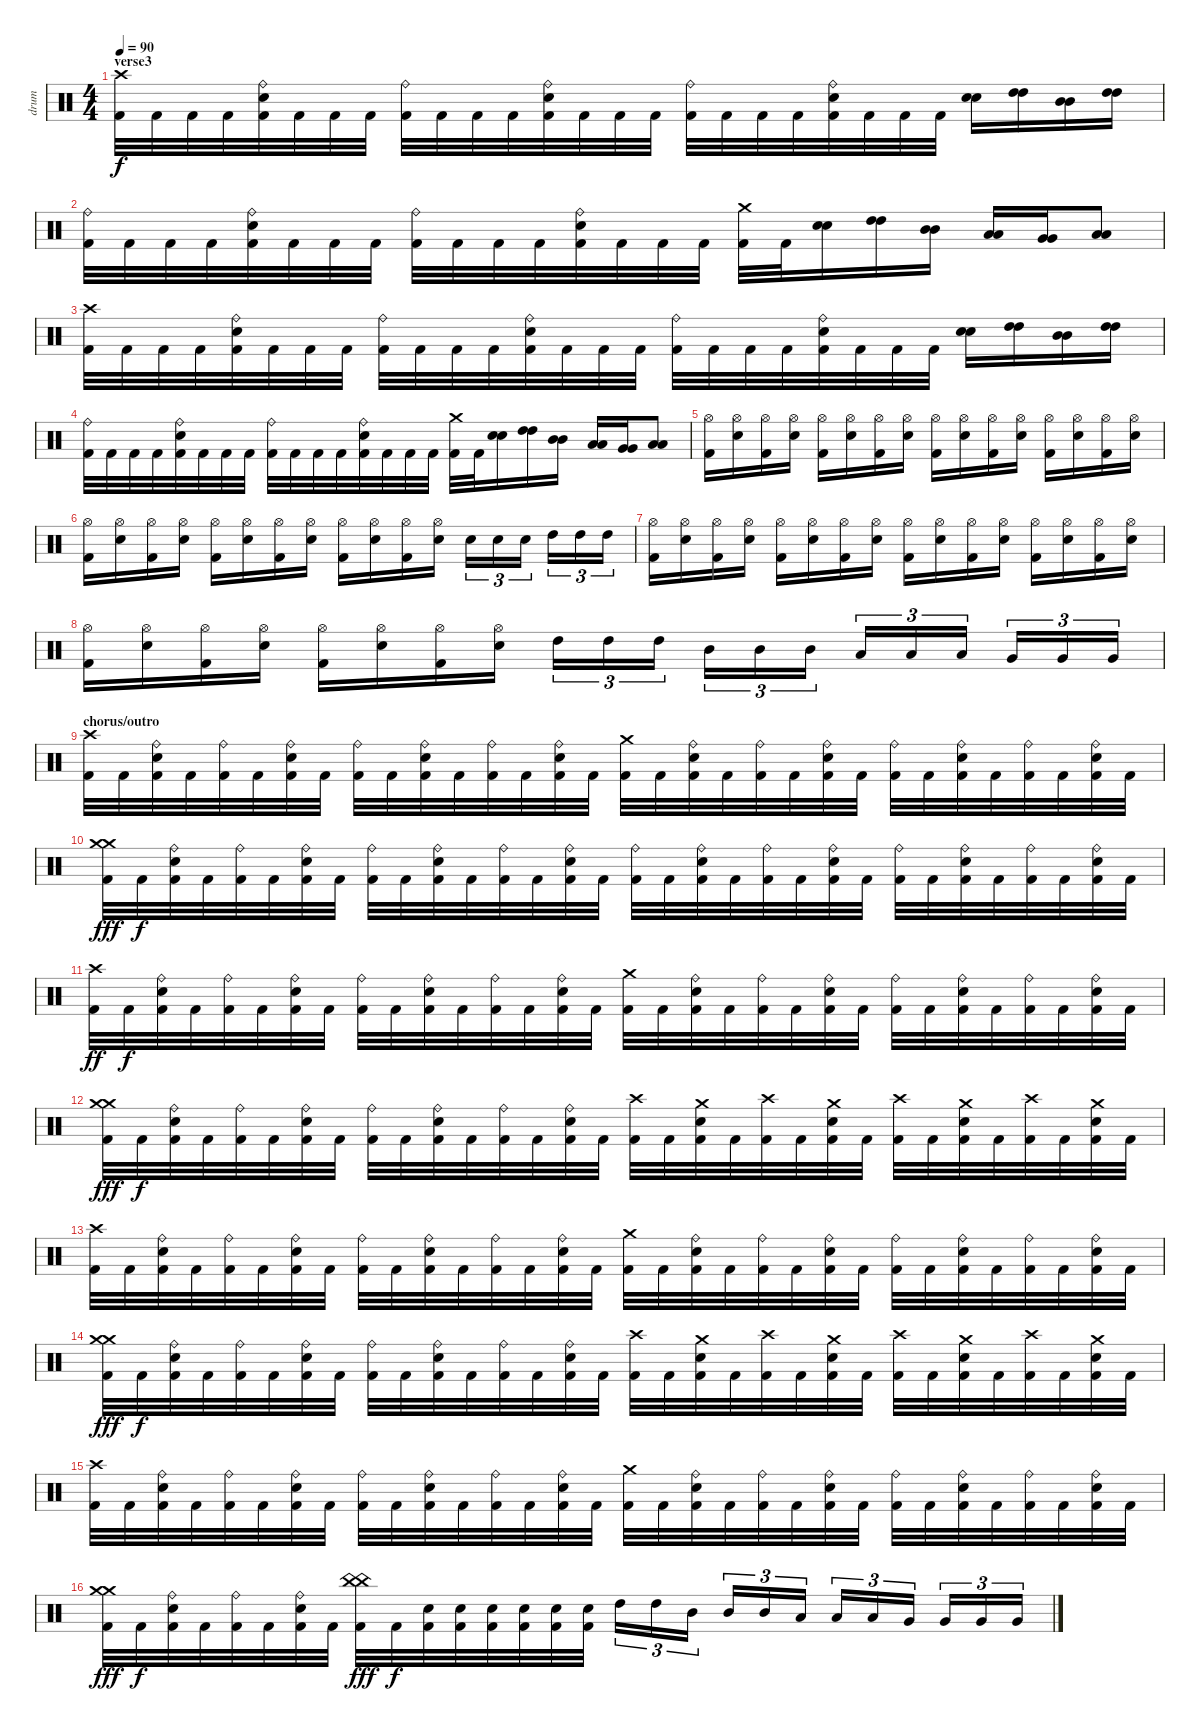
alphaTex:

\track ("drum" "drum") {instrument percussion}
\staff {score}
\articulation defaults
\ts (4 4)
\section ("" "verse3")
\tempo 90
\clef neutral
\ks c
("Crash high (hit)" "Kick (hit) 2").32{dy f} "Kick (hit) 2".32 "Kick (hit) 2".32 "Kick (hit) 2".32 ("Ride (bell)" "Electric Snare (hit)" "Kick (hit) 2").32 "Kick (hit) 2".32 "Kick (hit) 2".32 "Kick (hit) 2".32 ("Ride (bell)" "Kick (hit) 2").32 "Kick (hit) 2".32 "Kick (hit) 2".32 "Kick (hit) 2".32 ("Ride (bell)" "Electric Snare (hit)" "Kick (hit) 2").32 "Kick (hit) 2".32 "Kick (hit) 2".32 "Kick (hit) 2".32 ("Ride (bell)" "Kick (hit) 2").32 "Kick (hit) 2".32 "Kick (hit) 2".32 "Kick (hit) 2".32 ("Ride (bell)" "Electric Snare (hit)" "Kick (hit) 2").32 "Kick (hit) 2".32 "Kick (hit) 2".32 "Kick (hit) 2".32 ("Electric Snare (hit)" "Electric Snare (hit)").16 ("High Tom (hit)" "High Tom (hit)").16 ("Mid Tom (hit)" "Mid Tom (hit)").16 ("High Tom (hit)" "High Tom (hit)").16 |
("Ride (bell)" "Kick (hit) 2").32 "Kick (hit) 2".32 "Kick (hit) 2".32 "Kick (hit) 2".32 ("Ride (bell)" "Electric Snare (hit)" "Kick (hit) 2").32 "Kick (hit) 2".32 "Kick (hit) 2".32 "Kick (hit) 2".32 ("Ride (bell)" "Kick (hit) 2").32 "Kick (hit) 2".32 "Kick (hit) 2".32 "Kick (hit) 2".32 ("Ride (bell)" "Electric Snare (hit)" "Kick (hit) 2").32 "Kick (hit) 2".32 "Kick (hit) 2".32 "Kick (hit) 2".32 ("Crash medium (hit)" "Kick (hit) 2").32 "Kick (hit) 2".32 ("Electric Snare (hit)" "Electric Snare (hit)").16 ("High Tom (hit)" "High Tom (hit)").16 ("Mid Tom (hit)" "Mid Tom (hit)").16 ("Low Tom (hit)" "Low Tom (hit)").16 ("Very Low Tom (hit)" "Very Low Tom (hit)").16 ("Low Floor Tom (hit)" "Low Floor Tom (hit)").8 |
("Crash high (hit)" "Kick (hit) 2").32 "Kick (hit) 2".32 "Kick (hit) 2".32 "Kick (hit) 2".32 ("Ride (bell)" "Electric Snare (hit)" "Kick (hit) 2").32 "Kick (hit) 2".32 "Kick (hit) 2".32 "Kick (hit) 2".32 ("Ride (bell)" "Kick (hit) 2").32 "Kick (hit) 2".32 "Kick (hit) 2".32 "Kick (hit) 2".32 ("Ride (bell)" "Electric Snare (hit)" "Kick (hit) 2").32 "Kick (hit) 2".32 "Kick (hit) 2".32 "Kick (hit) 2".32 ("Ride (bell)" "Kick (hit) 2").32 "Kick (hit) 2".32 "Kick (hit) 2".32 "Kick (hit) 2".32 ("Ride (bell)" "Electric Snare (hit)" "Kick (hit) 2").32 "Kick (hit) 2".32 "Kick (hit) 2".32 "Kick (hit) 2".32 ("Electric Snare (hit)" "Electric Snare (hit)").16 ("High Tom (hit)" "High Tom (hit)").16 ("Mid Tom (hit)" "Mid Tom (hit)").16 ("High Tom (hit)" "High Tom (hit)").16 |
("Ride (bell)" "Kick (hit) 2").32 "Kick (hit) 2".32 "Kick (hit) 2".32 "Kick (hit) 2".32 ("Ride (bell)" "Electric Snare (hit)" "Kick (hit) 2").32 "Kick (hit) 2".32 "Kick (hit) 2".32 "Kick (hit) 2".32 ("Ride (bell)" "Kick (hit) 2").32 "Kick (hit) 2".32 "Kick (hit) 2".32 "Kick (hit) 2".32 ("Ride (bell)" "Electric Snare (hit)" "Kick (hit) 2").32 "Kick (hit) 2".32 "Kick (hit) 2".32 "Kick (hit) 2".32 ("Crash medium (hit)" "Kick (hit) 2").32 "Kick (hit) 2".32 ("Electric Snare (hit)" "Electric Snare (hit)").16 ("High Tom (hit)" "High Tom (hit)").16 ("Mid Tom (hit)" "Mid Tom (hit)").16 ("Low Tom (hit)" "Low Tom (hit)").16 ("Very Low Tom (hit)" "Very Low Tom (hit)").16 ("Low Floor Tom (hit)" "Low Floor Tom (hit)").8 |
("Hi-Hat (open)" "Kick (hit) 2").16 ("Hi-Hat (open)" "Electric Snare (hit)").16 ("Hi-Hat (open)" "Kick (hit) 2").16 ("Hi-Hat (open)" "Electric Snare (hit)").16 ("Hi-Hat (open)" "Kick (hit) 2").16 ("Hi-Hat (open)" "Electric Snare (hit)").16 ("Hi-Hat (open)" "Kick (hit) 2").16 ("Hi-Hat (open)" "Electric Snare (hit)").16 ("Hi-Hat (open)" "Kick (hit) 2").16 ("Hi-Hat (open)" "Electric Snare (hit)").16 ("Hi-Hat (open)" "Kick (hit) 2").16 ("Hi-Hat (open)" "Electric Snare (hit)").16 ("Hi-Hat (open)" "Kick (hit) 2").16 ("Hi-Hat (open)" "Electric Snare (hit)").16 ("Hi-Hat (open)" "Kick (hit) 2").16 ("Hi-Hat (open)" "Electric Snare (hit)").16 |
("Hi-Hat (open)" "Kick (hit) 2").16 ("Hi-Hat (open)" "Electric Snare (hit)").16 ("Hi-Hat (open)" "Kick (hit) 2").16 ("Hi-Hat (open)" "Electric Snare (hit)").16 ("Hi-Hat (open)" "Kick (hit) 2").16 ("Hi-Hat (open)" "Electric Snare (hit)").16 ("Hi-Hat (open)" "Kick (hit) 2").16 ("Hi-Hat (open)" "Electric Snare (hit)").16 ("Hi-Hat (open)" "Kick (hit) 2").16 ("Hi-Hat (open)" "Electric Snare (hit)").16 ("Hi-Hat (open)" "Kick (hit) 2").16 ("Hi-Hat (open)" "Electric Snare (hit)").16 "Electric Snare (hit)".16{tu (3 2)} "Electric Snare (hit)".16{tu (3 2)} "Electric Snare (hit)".16{tu (3 2)} "High Tom (hit)".16{tu (3 2)} "High Tom (hit)".16{tu (3 2)} "High Tom (hit)".16{tu (3 2)} |
("Hi-Hat (open)" "Kick (hit) 2").16 ("Hi-Hat (open)" "Electric Snare (hit)").16 ("Hi-Hat (open)" "Kick (hit) 2").16 ("Hi-Hat (open)" "Electric Snare (hit)").16 ("Hi-Hat (open)" "Kick (hit) 2").16 ("Hi-Hat (open)" "Electric Snare (hit)").16 ("Hi-Hat (open)" "Kick (hit) 2").16 ("Hi-Hat (open)" "Electric Snare (hit)").16 ("Hi-Hat (open)" "Kick (hit) 2").16 ("Hi-Hat (open)" "Electric Snare (hit)").16 ("Hi-Hat (open)" "Kick (hit) 2").16 ("Hi-Hat (open)" "Electric Snare (hit)").16 ("Hi-Hat (open)" "Kick (hit) 2").16 ("Hi-Hat (open)" "Electric Snare (hit)").16 ("Hi-Hat (open)" "Kick (hit) 2").16 ("Hi-Hat (open)" "Electric Snare (hit)").16 |
("Hi-Hat (open)" "Kick (hit) 2").16 ("Hi-Hat (open)" "Electric Snare (hit)").16 ("Hi-Hat (open)" "Kick (hit) 2").16 ("Hi-Hat (open)" "Electric Snare (hit)").16 ("Hi-Hat (open)" "Kick (hit) 2").16 ("Hi-Hat (open)" "Electric Snare (hit)").16 ("Hi-Hat (open)" "Kick (hit) 2").16 ("Hi-Hat (open)" "Electric Snare (hit)").16 "High Tom (hit)".16{tu (3 2)} "High Tom (hit)".16{tu (3 2)} "High Tom (hit)".16{tu (3 2)} "Mid Tom (hit)".16{tu (3 2)} "Mid Tom (hit)".16{tu (3 2)} "Mid Tom (hit)".16{tu (3 2)} "Low Tom (hit)".16{tu (3 2)} "Low Tom (hit)".16{tu (3 2)} "Low Tom (hit)".16{tu (3 2)} "Very Low Tom (hit)".16{tu (3 2)} "Very Low Tom (hit)".16{tu (3 2)} "Very Low Tom (hit)".16{tu (3 2)} |
\section ("" "chorus/outro")
("Crash high (hit)" "Kick (hit) 2").32 "Kick (hit) 2".32 ("Ride (bell)" "Electric Snare (hit)" "Kick (hit) 2").32 "Kick (hit) 2".32 ("Ride (bell)" "Kick (hit) 2").32 "Kick (hit) 2".32 ("Ride (bell)" "Electric Snare (hit)" "Kick (hit) 2").32 "Kick (hit) 2".32 ("Ride (bell)" "Kick (hit) 2").32 "Kick (hit) 2".32 ("Ride (bell)" "Electric Snare (hit)" "Kick (hit) 2").32 "Kick (hit) 2".32 ("Ride (bell)" "Kick (hit) 2").32 "Kick (hit) 2".32 ("Ride (bell)" "Electric Snare (hit)" "Kick (hit) 2").32 "Kick (hit) 2".32 ("Crash medium (hit)" "Kick (hit) 2").32 "Kick (hit) 2".32 ("Ride (bell)" "Electric Snare (hit)" "Kick (hit) 2").32 "Kick (hit) 2".32 ("Ride (bell)" "Kick (hit) 2").32 "Kick (hit) 2".32 ("Ride (bell)" "Electric Snare (hit)" "Kick (hit) 2").32 "Kick (hit) 2".32 ("Ride (bell)" "Kick (hit) 2").32 "Kick (hit) 2".32 ("Ride (bell)" "Electric Snare (hit)" "Kick (hit) 2").32 "Kick (hit) 2".32 ("Ride (bell)" "Kick (hit) 2").32 "Kick (hit) 2".32 ("Ride (bell)" "Electric Snare (hit)" "Kick (hit) 2").32 "Kick (hit) 2".32 |
("Crash medium (hit)" "Crash medium (hit)" "Kick (hit) 2").32{dy fff} "Kick (hit) 2".32{dy f} ("Ride (bell)" "Electric Snare (hit)" "Kick (hit) 2").32 "Kick (hit) 2".32 ("Ride (bell)" "Kick (hit) 2").32 "Kick (hit) 2".32 ("Ride (bell)" "Electric Snare (hit)" "Kick (hit) 2").32 "Kick (hit) 2".32 ("Ride (bell)" "Kick (hit) 2").32 "Kick (hit) 2".32 ("Ride (bell)" "Electric Snare (hit)" "Kick (hit) 2").32 "Kick (hit) 2".32 ("Ride (bell)" "Kick (hit) 2").32 "Kick (hit) 2".32 ("Ride (bell)" "Electric Snare (hit)" "Kick (hit) 2").32 "Kick (hit) 2".32 ("Ride (bell)" "Kick (hit) 2").32 "Kick (hit) 2".32 ("Ride (bell)" "Electric Snare (hit)" "Kick (hit) 2").32 "Kick (hit) 2".32 ("Ride (bell)" "Kick (hit) 2").32 "Kick (hit) 2".32 ("Ride (bell)" "Electric Snare (hit)" "Kick (hit) 2").32 "Kick (hit) 2".32 ("Ride (bell)" "Kick (hit) 2").32 "Kick (hit) 2".32 ("Ride (bell)" "Electric Snare (hit)" "Kick (hit) 2").32 "Kick (hit) 2".32 ("Ride (bell)" "Kick (hit) 2").32 "Kick (hit) 2".32 ("Ride (bell)" "Electric Snare (hit)" "Kick (hit) 2").32 "Kick (hit) 2".32 |
("Crash high (hit)" "Kick (hit) 2").32{dy ff} "Kick (hit) 2".32{dy f} ("Ride (bell)" "Electric Snare (hit)" "Kick (hit) 2").32 "Kick (hit) 2".32 ("Ride (bell)" "Kick (hit) 2").32 "Kick (hit) 2".32 ("Ride (bell)" "Electric Snare (hit)" "Kick (hit) 2").32 "Kick (hit) 2".32 ("Ride (bell)" "Kick (hit) 2").32 "Kick (hit) 2".32 ("Ride (bell)" "Electric Snare (hit)" "Kick (hit) 2").32 "Kick (hit) 2".32 ("Ride (bell)" "Kick (hit) 2").32 "Kick (hit) 2".32 ("Ride (bell)" "Electric Snare (hit)" "Kick (hit) 2").32 "Kick (hit) 2".32 ("Crash medium (hit)" "Kick (hit) 2").32 "Kick (hit) 2".32 ("Ride (bell)" "Electric Snare (hit)" "Kick (hit) 2").32 "Kick (hit) 2".32 ("Ride (bell)" "Kick (hit) 2").32 "Kick (hit) 2".32 ("Ride (bell)" "Electric Snare (hit)" "Kick (hit) 2").32 "Kick (hit) 2".32 ("Ride (bell)" "Kick (hit) 2").32 "Kick (hit) 2".32 ("Ride (bell)" "Electric Snare (hit)" "Kick (hit) 2").32 "Kick (hit) 2".32 ("Ride (bell)" "Kick (hit) 2").32 "Kick (hit) 2".32 ("Ride (bell)" "Electric Snare (hit)" "Kick (hit) 2").32 "Kick (hit) 2".32 |
("Crash medium (hit)" "Crash medium (hit)" "Kick (hit) 2").32{dy fff} "Kick (hit) 2".32{dy f} ("Ride (bell)" "Electric Snare (hit)" "Kick (hit) 2").32 "Kick (hit) 2".32 ("Ride (bell)" "Kick (hit) 2").32 "Kick (hit) 2".32 ("Ride (bell)" "Electric Snare (hit)" "Kick (hit) 2").32 "Kick (hit) 2".32 ("Ride (bell)" "Kick (hit) 2").32 "Kick (hit) 2".32 ("Ride (bell)" "Electric Snare (hit)" "Kick (hit) 2").32 "Kick (hit) 2".32 ("Ride (bell)" "Kick (hit) 2").32 "Kick (hit) 2".32 ("Ride (bell)" "Electric Snare (hit)" "Kick (hit) 2").32 "Kick (hit) 2".32 ("Crash high (hit)" "Kick (hit) 2").32 "Kick (hit) 2".32 ("Crash medium (hit)" "Electric Snare (hit)" "Kick (hit) 2").32 "Kick (hit) 2".32 ("Crash high (hit)" "Kick (hit) 2").32 "Kick (hit) 2".32 ("Crash medium (hit)" "Electric Snare (hit)" "Kick (hit) 2").32 "Kick (hit) 2".32 ("Crash high (hit)" "Kick (hit) 2").32 "Kick (hit) 2".32 ("Crash medium (hit)" "Electric Snare (hit)" "Kick (hit) 2").32 "Kick (hit) 2".32 ("Crash high (hit)" "Kick (hit) 2").32 "Kick (hit) 2".32 ("Crash medium (hit)" "Electric Snare (hit)" "Kick (hit) 2").32 "Kick (hit) 2".32 |
("Crash high (hit)" "Kick (hit) 2").32 "Kick (hit) 2".32 ("Ride (bell)" "Electric Snare (hit)" "Kick (hit) 2").32 "Kick (hit) 2".32 ("Ride (bell)" "Kick (hit) 2").32 "Kick (hit) 2".32 ("Ride (bell)" "Electric Snare (hit)" "Kick (hit) 2").32 "Kick (hit) 2".32 ("Ride (bell)" "Kick (hit) 2").32 "Kick (hit) 2".32 ("Ride (bell)" "Electric Snare (hit)" "Kick (hit) 2").32 "Kick (hit) 2".32 ("Ride (bell)" "Kick (hit) 2").32 "Kick (hit) 2".32 ("Ride (bell)" "Electric Snare (hit)" "Kick (hit) 2").32 "Kick (hit) 2".32 ("Crash medium (hit)" "Kick (hit) 2").32 "Kick (hit) 2".32 ("Ride (bell)" "Electric Snare (hit)" "Kick (hit) 2").32 "Kick (hit) 2".32 ("Ride (bell)" "Kick (hit) 2").32 "Kick (hit) 2".32 ("Ride (bell)" "Electric Snare (hit)" "Kick (hit) 2").32 "Kick (hit) 2".32 ("Ride (bell)" "Kick (hit) 2").32 "Kick (hit) 2".32 ("Ride (bell)" "Electric Snare (hit)" "Kick (hit) 2").32 "Kick (hit) 2".32 ("Ride (bell)" "Kick (hit) 2").32 "Kick (hit) 2".32 ("Ride (bell)" "Electric Snare (hit)" "Kick (hit) 2").32 "Kick (hit) 2".32 |
("Crash medium (hit)" "Crash medium (hit)" "Kick (hit) 2").32{dy fff} "Kick (hit) 2".32{dy f} ("Ride (bell)" "Electric Snare (hit)" "Kick (hit) 2").32 "Kick (hit) 2".32 ("Ride (bell)" "Kick (hit) 2").32 "Kick (hit) 2".32 ("Ride (bell)" "Electric Snare (hit)" "Kick (hit) 2").32 "Kick (hit) 2".32 ("Ride (bell)" "Kick (hit) 2").32 "Kick (hit) 2".32 ("Ride (bell)" "Electric Snare (hit)" "Kick (hit) 2").32 "Kick (hit) 2".32 ("Ride (bell)" "Kick (hit) 2").32 "Kick (hit) 2".32 ("Ride (bell)" "Electric Snare (hit)" "Kick (hit) 2").32 "Kick (hit) 2".32 ("Crash high (hit)" "Kick (hit) 2").32 "Kick (hit) 2".32 ("Crash medium (hit)" "Electric Snare (hit)" "Kick (hit) 2").32 "Kick (hit) 2".32 ("Crash high (hit)" "Kick (hit) 2").32 "Kick (hit) 2".32 ("Crash medium (hit)" "Electric Snare (hit)" "Kick (hit) 2").32 "Kick (hit) 2".32 ("Crash high (hit)" "Kick (hit) 2").32 "Kick (hit) 2".32 ("Crash medium (hit)" "Electric Snare (hit)" "Kick (hit) 2").32 "Kick (hit) 2".32 ("Crash high (hit)" "Kick (hit) 2").32 "Kick (hit) 2".32 ("Crash medium (hit)" "Electric Snare (hit)" "Kick (hit) 2").32 "Kick (hit) 2".32 |
("Crash high (hit)" "Kick (hit) 2").32 "Kick (hit) 2".32 ("Ride (bell)" "Electric Snare (hit)" "Kick (hit) 2").32 "Kick (hit) 2".32 ("Ride (bell)" "Kick (hit) 2").32 "Kick (hit) 2".32 ("Ride (bell)" "Electric Snare (hit)" "Kick (hit) 2").32 "Kick (hit) 2".32 ("Ride (bell)" "Kick (hit) 2").32 "Kick (hit) 2".32 ("Ride (bell)" "Electric Snare (hit)" "Kick (hit) 2").32 "Kick (hit) 2".32 ("Ride (bell)" "Kick (hit) 2").32 "Kick (hit) 2".32 ("Ride (bell)" "Electric Snare (hit)" "Kick (hit) 2").32 "Kick (hit) 2".32 ("Crash medium (hit)" "Kick (hit) 2").32 "Kick (hit) 2".32 ("Ride (bell)" "Electric Snare (hit)" "Kick (hit) 2").32 "Kick (hit) 2".32 ("Ride (bell)" "Kick (hit) 2").32 "Kick (hit) 2".32 ("Ride (bell)" "Electric Snare (hit)" "Kick (hit) 2").32 "Kick (hit) 2".32 ("Ride (bell)" "Kick (hit) 2").32 "Kick (hit) 2".32 ("Ride (bell)" "Electric Snare (hit)" "Kick (hit) 2").32 "Kick (hit) 2".32 ("Ride (bell)" "Kick (hit) 2").32 "Kick (hit) 2".32 ("Ride (bell)" "Electric Snare (hit)" "Kick (hit) 2").32 "Kick (hit) 2".32 |
("Crash medium (hit)" "Crash medium (hit)" "Kick (hit) 2").32{dy fff} "Kick (hit) 2".32{dy f} ("Ride (bell)" "Electric Snare (hit)" "Kick (hit) 2").32 "Kick (hit) 2".32 ("Ride (bell)" "Kick (hit) 2").32 "Kick (hit) 2".32 ("Ride (bell)" "Electric Snare (hit)" "Kick (hit) 2").32 "Kick (hit) 2".32 ("China (hit)" "China (hit)" "Kick (hit) 2").32{dy fff} "Kick (hit) 2".32{dy f} ("Electric Snare (hit)" "Kick (hit) 2").32 ("Electric Snare (hit)" "Kick (hit) 2").32 ("Electric Snare (hit)" "Kick (hit) 2").32 ("Electric Snare (hit)" "Kick (hit) 2").32 ("Electric Snare (hit)" "Kick (hit) 2").32 ("Electric Snare (hit)" "Kick (hit) 2").32 "High Tom (hit)".16{tu (3 2)} "High Tom (hit)".16{tu (3 2)} "Mid Tom (hit)".16{tu (3 2)} "Mid Tom (hit)".16{tu (3 2)} "Mid Tom (hit)".16{tu (3 2)} "Low Tom (hit)".16{tu (3 2)} "Low Tom (hit)".16{tu (3 2)} "Low Tom (hit)".16{tu (3 2)} "Very Low Tom (hit)".16{tu (3 2)} "Very Low Tom (hit)".16{tu (3 2)} "Very Low Tom (hit)".16{tu (3 2)} "Very Low Tom (hit)".16{tu (3 2)}
